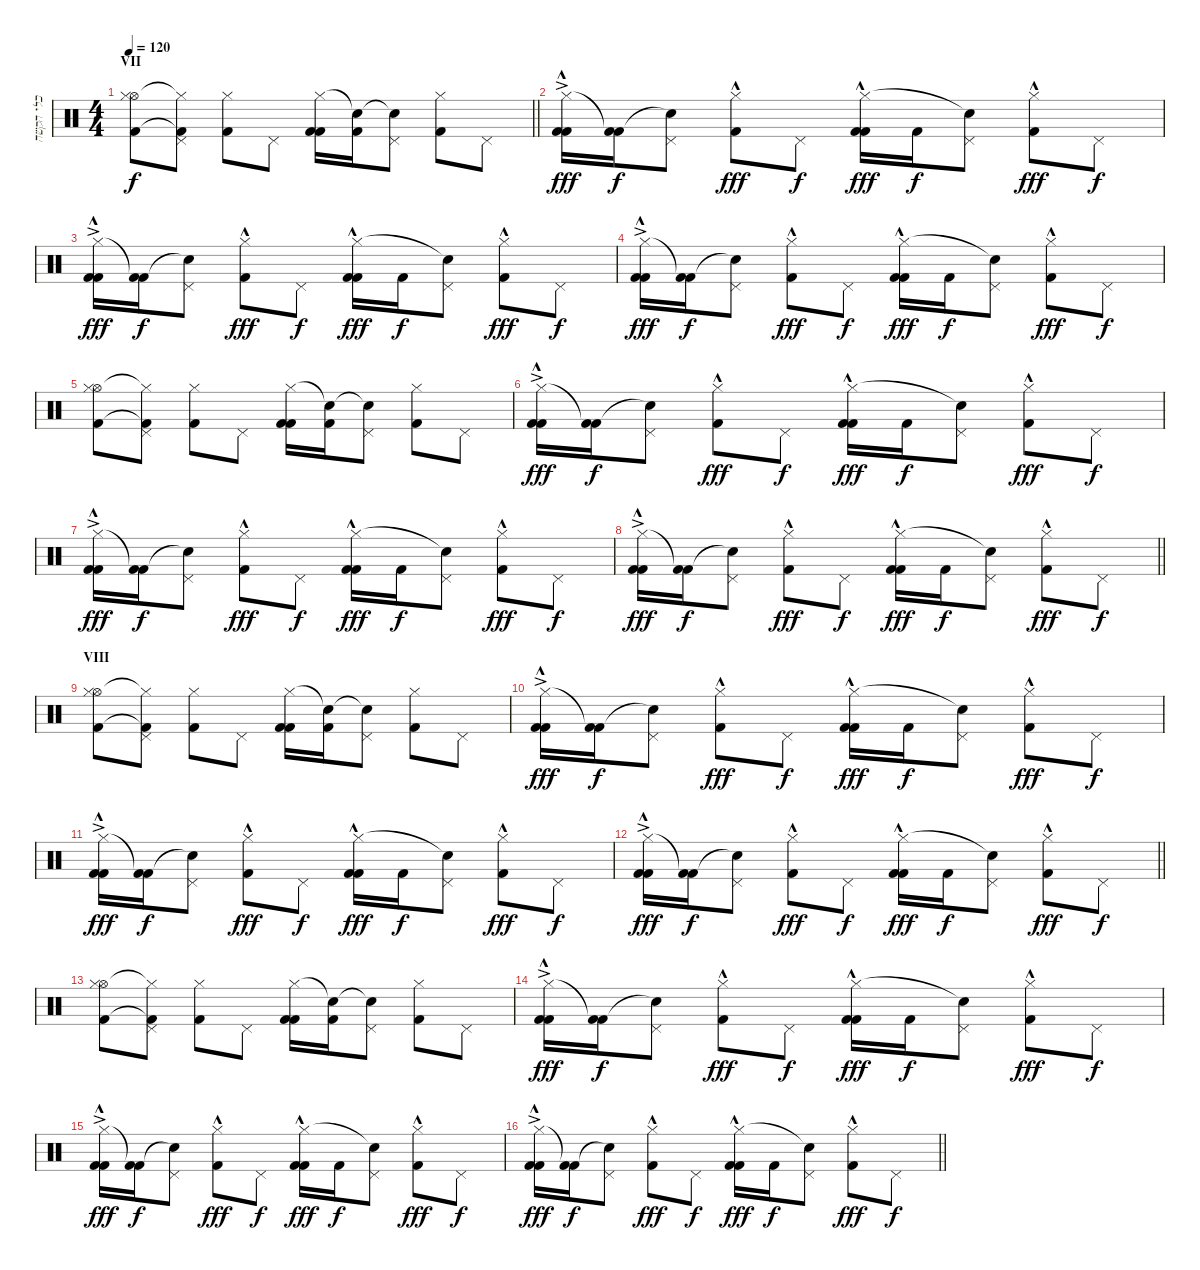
\track ("כלי הקשה" "כלי הקשה") {instrument percussion}
\staff {score}
\articulation defaults
\ts (4 4)
\section ("" "VII")
\tempo 120
\clef neutral
\barLineRight lightlight
\ks c
("Hi-Hat (open)" "Hi-Hat (closed)" "Kick (hit) 2").8{dy f} ("Pedal Hi-Hat (hit)" "Hi-Hat (closed)"{t} "Kick (hit) 2"{t}).8 ("Hi-Hat (closed)" "Kick (hit) 2").8 "Pedal Hi-Hat (hit)".8 ("Kick (hit) 2" "Hi-Hat (closed)" "Kick (hit) 2").16 ("Kick (hit) 2" "Snare (hit)"{t}).16 ("Pedal Hi-Hat (hit)" "Snare (hit)"{t}).8 ("Hi-Hat (closed)" "Kick (hit) 2").8 "Pedal Hi-Hat (hit)".8 |
("Kick (hit) 2"{ac} "Hi-Hat (closed)"{hac} "Kick (hit) 2"{hac}).16{dy fff} ("Kick (hit) 2" "Kick (hit) 2"{t}).16{dy f} ("Pedal Hi-Hat (hit)" "Snare (hit)"{t}).8 ("Hi-Hat (closed)"{hac} "Kick (hit) 2"{hac}).8{dy fff} "Pedal Hi-Hat (hit)".8{dy f} ("Kick (hit) 2" "Hi-Hat (closed)"{hac} "Kick (hit) 2"{hac}).16{dy fff} "Kick (hit) 2".16{dy f} ("Pedal Hi-Hat (hit)" "Snare (hit)"{t}).8 ("Hi-Hat (closed)"{hac} "Kick (hit) 2"{hac}).8{dy fff} "Pedal Hi-Hat (hit)".8{dy f} |
("Kick (hit) 2"{ac} "Hi-Hat (closed)"{hac} "Kick (hit) 2"{hac}).16{dy fff} ("Kick (hit) 2" "Kick (hit) 2"{t}).16{dy f} ("Pedal Hi-Hat (hit)" "Snare (hit)"{t}).8 ("Hi-Hat (closed)"{hac} "Kick (hit) 2"{hac}).8{dy fff} "Pedal Hi-Hat (hit)".8{dy f} ("Kick (hit) 2" "Hi-Hat (closed)"{hac} "Kick (hit) 2"{hac}).16{dy fff} "Kick (hit) 2".16{dy f} ("Pedal Hi-Hat (hit)" "Snare (hit)"{t}).8 ("Hi-Hat (closed)"{hac} "Kick (hit) 2"{hac}).8{dy fff} "Pedal Hi-Hat (hit)".8{dy f} |
("Kick (hit) 2"{ac} "Hi-Hat (closed)"{hac} "Kick (hit) 2"{hac}).16{dy fff} ("Kick (hit) 2" "Kick (hit) 2"{t}).16{dy f} ("Pedal Hi-Hat (hit)" "Snare (hit)"{t}).8 ("Hi-Hat (closed)"{hac} "Kick (hit) 2"{hac}).8{dy fff} "Pedal Hi-Hat (hit)".8{dy f} ("Kick (hit) 2" "Hi-Hat (closed)"{hac} "Kick (hit) 2"{hac}).16{dy fff} "Kick (hit) 2".16{dy f} ("Pedal Hi-Hat (hit)" "Snare (hit)"{t}).8 ("Hi-Hat (closed)"{hac} "Kick (hit) 2"{hac}).8{dy fff} "Pedal Hi-Hat (hit)".8{dy f} |
("Hi-Hat (open)" "Hi-Hat (closed)" "Kick (hit) 2").8 ("Pedal Hi-Hat (hit)" "Hi-Hat (closed)"{t} "Kick (hit) 2"{t}).8 ("Hi-Hat (closed)" "Kick (hit) 2").8 "Pedal Hi-Hat (hit)".8 ("Kick (hit) 2" "Hi-Hat (closed)" "Kick (hit) 2").16 ("Kick (hit) 2" "Snare (hit)"{t}).16 ("Pedal Hi-Hat (hit)" "Snare (hit)"{t}).8 ("Hi-Hat (closed)" "Kick (hit) 2").8 "Pedal Hi-Hat (hit)".8 |
("Kick (hit) 2"{ac} "Hi-Hat (closed)"{hac} "Kick (hit) 2"{hac}).16{dy fff} ("Kick (hit) 2" "Kick (hit) 2"{t}).16{dy f} ("Pedal Hi-Hat (hit)" "Snare (hit)"{t}).8 ("Hi-Hat (closed)"{hac} "Kick (hit) 2"{hac}).8{dy fff} "Pedal Hi-Hat (hit)".8{dy f} ("Kick (hit) 2" "Hi-Hat (closed)"{hac} "Kick (hit) 2"{hac}).16{dy fff} "Kick (hit) 2".16{dy f} ("Pedal Hi-Hat (hit)" "Snare (hit)"{t}).8 ("Hi-Hat (closed)"{hac} "Kick (hit) 2"{hac}).8{dy fff} "Pedal Hi-Hat (hit)".8{dy f} |
("Kick (hit) 2"{ac} "Hi-Hat (closed)"{hac} "Kick (hit) 2"{hac}).16{dy fff} ("Kick (hit) 2" "Kick (hit) 2"{t}).16{dy f} ("Pedal Hi-Hat (hit)" "Snare (hit)"{t}).8 ("Hi-Hat (closed)"{hac} "Kick (hit) 2"{hac}).8{dy fff} "Pedal Hi-Hat (hit)".8{dy f} ("Kick (hit) 2" "Hi-Hat (closed)"{hac} "Kick (hit) 2"{hac}).16{dy fff} "Kick (hit) 2".16{dy f} ("Pedal Hi-Hat (hit)" "Snare (hit)"{t}).8 ("Hi-Hat (closed)"{hac} "Kick (hit) 2"{hac}).8{dy fff} "Pedal Hi-Hat (hit)".8{dy f} |
\barLineRight lightlight
("Kick (hit) 2"{ac} "Hi-Hat (closed)"{hac} "Kick (hit) 2"{hac}).16{dy fff} ("Kick (hit) 2" "Kick (hit) 2"{t}).16{dy f} ("Pedal Hi-Hat (hit)" "Snare (hit)"{t}).8 ("Hi-Hat (closed)"{hac} "Kick (hit) 2"{hac}).8{dy fff} "Pedal Hi-Hat (hit)".8{dy f} ("Kick (hit) 2" "Hi-Hat (closed)"{hac} "Kick (hit) 2"{hac}).16{dy fff} "Kick (hit) 2".16{dy f} ("Pedal Hi-Hat (hit)" "Snare (hit)"{t}).8 ("Hi-Hat (closed)"{hac} "Kick (hit) 2"{hac}).8{dy fff} "Pedal Hi-Hat (hit)".8{dy f} |
\section ("" "VIII")
("Hi-Hat (open)" "Hi-Hat (closed)" "Kick (hit) 2").8 ("Pedal Hi-Hat (hit)" "Hi-Hat (closed)"{t} "Kick (hit) 2"{t}).8 ("Hi-Hat (closed)" "Kick (hit) 2").8 "Pedal Hi-Hat (hit)".8 ("Kick (hit) 2" "Hi-Hat (closed)" "Kick (hit) 2").16 ("Kick (hit) 2" "Snare (hit)"{t}).16 ("Pedal Hi-Hat (hit)" "Snare (hit)"{t}).8 ("Hi-Hat (closed)" "Kick (hit) 2").8 "Pedal Hi-Hat (hit)".8 |
("Kick (hit) 2"{ac} "Hi-Hat (closed)"{hac} "Kick (hit) 2"{hac}).16{dy fff} ("Kick (hit) 2" "Kick (hit) 2"{t}).16{dy f} ("Pedal Hi-Hat (hit)" "Snare (hit)"{t}).8 ("Hi-Hat (closed)"{hac} "Kick (hit) 2"{hac}).8{dy fff} "Pedal Hi-Hat (hit)".8{dy f} ("Kick (hit) 2" "Hi-Hat (closed)"{hac} "Kick (hit) 2"{hac}).16{dy fff} "Kick (hit) 2".16{dy f} ("Pedal Hi-Hat (hit)" "Snare (hit)"{t}).8 ("Hi-Hat (closed)"{hac} "Kick (hit) 2"{hac}).8{dy fff} "Pedal Hi-Hat (hit)".8{dy f} |
("Kick (hit) 2"{ac} "Hi-Hat (closed)"{hac} "Kick (hit) 2"{hac}).16{dy fff} ("Kick (hit) 2" "Kick (hit) 2"{t}).16{dy f} ("Pedal Hi-Hat (hit)" "Snare (hit)"{t}).8 ("Hi-Hat (closed)"{hac} "Kick (hit) 2"{hac}).8{dy fff} "Pedal Hi-Hat (hit)".8{dy f} ("Kick (hit) 2" "Hi-Hat (closed)"{hac} "Kick (hit) 2"{hac}).16{dy fff} "Kick (hit) 2".16{dy f} ("Pedal Hi-Hat (hit)" "Snare (hit)"{t}).8 ("Hi-Hat (closed)"{hac} "Kick (hit) 2"{hac}).8{dy fff} "Pedal Hi-Hat (hit)".8{dy f} |
\barLineRight lightlight
("Kick (hit) 2"{ac} "Hi-Hat (closed)"{hac} "Kick (hit) 2"{hac}).16{dy fff} ("Kick (hit) 2" "Kick (hit) 2"{t}).16{dy f} ("Pedal Hi-Hat (hit)" "Snare (hit)"{t}).8 ("Hi-Hat (closed)"{hac} "Kick (hit) 2"{hac}).8{dy fff} "Pedal Hi-Hat (hit)".8{dy f} ("Kick (hit) 2" "Hi-Hat (closed)"{hac} "Kick (hit) 2"{hac}).16{dy fff} "Kick (hit) 2".16{dy f} ("Pedal Hi-Hat (hit)" "Snare (hit)"{t}).8 ("Hi-Hat (closed)"{hac} "Kick (hit) 2"{hac}).8{dy fff} "Pedal Hi-Hat (hit)".8{dy f} |
("Hi-Hat (open)" "Hi-Hat (closed)" "Kick (hit) 2").8 ("Pedal Hi-Hat (hit)" "Hi-Hat (closed)"{t} "Kick (hit) 2"{t}).8 ("Hi-Hat (closed)" "Kick (hit) 2").8 "Pedal Hi-Hat (hit)".8 ("Kick (hit) 2" "Hi-Hat (closed)" "Kick (hit) 2").16 ("Kick (hit) 2" "Snare (hit)"{t}).16 ("Pedal Hi-Hat (hit)" "Snare (hit)"{t}).8 ("Hi-Hat (closed)" "Kick (hit) 2").8 "Pedal Hi-Hat (hit)".8 |
("Kick (hit) 2"{ac} "Hi-Hat (closed)"{hac} "Kick (hit) 2"{hac}).16{dy fff} ("Kick (hit) 2" "Kick (hit) 2"{t}).16{dy f} ("Pedal Hi-Hat (hit)" "Snare (hit)"{t}).8 ("Hi-Hat (closed)"{hac} "Kick (hit) 2"{hac}).8{dy fff} "Pedal Hi-Hat (hit)".8{dy f} ("Kick (hit) 2" "Hi-Hat (closed)"{hac} "Kick (hit) 2"{hac}).16{dy fff} "Kick (hit) 2".16{dy f} ("Pedal Hi-Hat (hit)" "Snare (hit)"{t}).8 ("Hi-Hat (closed)"{hac} "Kick (hit) 2"{hac}).8{dy fff} "Pedal Hi-Hat (hit)".8{dy f} |
("Kick (hit) 2"{ac} "Hi-Hat (closed)"{hac} "Kick (hit) 2"{hac}).16{dy fff} ("Kick (hit) 2" "Kick (hit) 2"{t}).16{dy f} ("Pedal Hi-Hat (hit)" "Snare (hit)"{t}).8 ("Hi-Hat (closed)"{hac} "Kick (hit) 2"{hac}).8{dy fff} "Pedal Hi-Hat (hit)".8{dy f} ("Kick (hit) 2" "Hi-Hat (closed)"{hac} "Kick (hit) 2"{hac}).16{dy fff} "Kick (hit) 2".16{dy f} ("Pedal Hi-Hat (hit)" "Snare (hit)"{t}).8 ("Hi-Hat (closed)"{hac} "Kick (hit) 2"{hac}).8{dy fff} "Pedal Hi-Hat (hit)".8{dy f} |
\barLineRight lightlight
("Kick (hit) 2"{ac} "Hi-Hat (closed)"{hac} "Kick (hit) 2"{hac}).16{dy fff} ("Kick (hit) 2" "Kick (hit) 2"{t}).16{dy f} ("Pedal Hi-Hat (hit)" "Snare (hit)"{t}).8 ("Hi-Hat (closed)"{hac} "Kick (hit) 2"{hac}).8{dy fff} "Pedal Hi-Hat (hit)".8{dy f} ("Kick (hit) 2" "Hi-Hat (closed)"{hac} "Kick (hit) 2"{hac}).16{dy fff} "Kick (hit) 2".16{dy f} ("Pedal Hi-Hat (hit)" "Snare (hit)"{t}).8 ("Hi-Hat (closed)"{hac} "Kick (hit) 2"{hac}).8{dy fff} "Pedal Hi-Hat (hit)".8{dy f}
